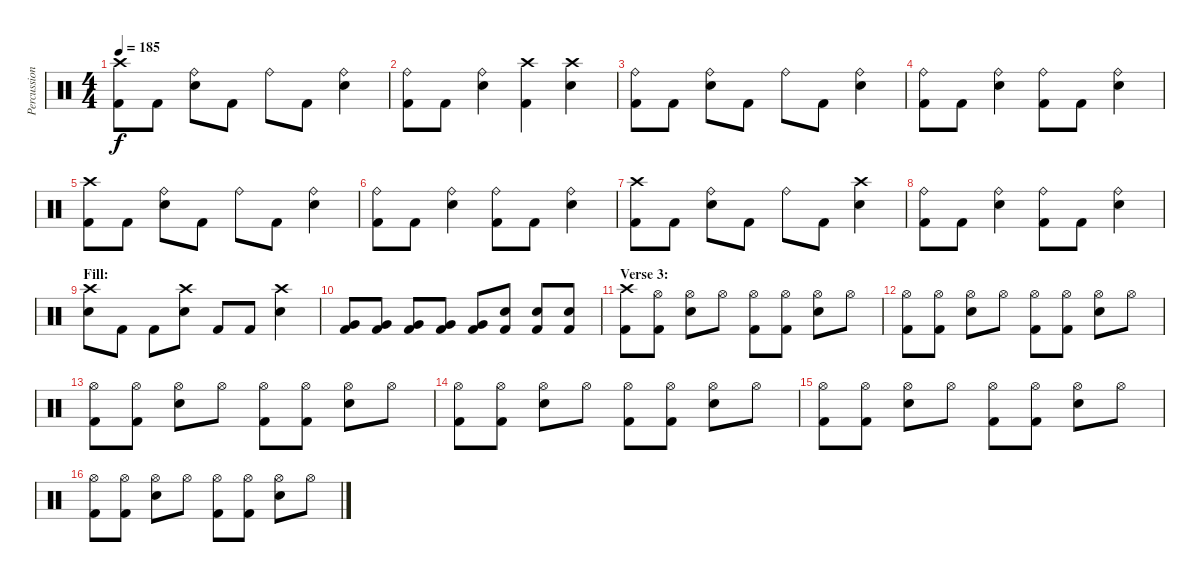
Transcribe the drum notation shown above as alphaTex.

\track ("Percussion" "Percussion") {instrument percussion}
\staff {score}
\articulation defaults
\ts (4 4)
\tempo 185
\clef neutral
\ks c
("Crash high (hit)" "Kick (hit) 2").8{dy f} "Kick (hit) 2".8 ("Ride (bell)" "Snare (hit) 2").8 "Kick (hit) 2".8 "Ride (bell)".8 "Kick (hit) 2".8 ("Ride (bell)" "Snare (hit) 2").4 |
("Ride (bell)" "Kick (hit) 2").8 "Kick (hit) 2".8 ("Ride (bell)" "Snare (hit) 2").4 ("Crash high (hit)" "Kick (hit) 2").4 ("Crash high (hit)" "Snare (hit) 2").4 |
("Ride (bell)" "Kick (hit) 2").8 "Kick (hit) 2".8 ("Ride (bell)" "Snare (hit) 2").8 "Kick (hit) 2".8 "Ride (bell)".8 "Kick (hit) 2".8 ("Ride (bell)" "Snare (hit) 2").4 |
("Ride (bell)" "Kick (hit) 2").8 "Kick (hit) 2".8 ("Ride (bell)" "Snare (hit) 2").4 ("Ride (bell)" "Kick (hit) 2").8 "Kick (hit) 2".8 ("Ride (bell)" "Snare (hit) 2").4 |
("Crash high (hit)" "Kick (hit) 2").8 "Kick (hit) 2".8 ("Ride (bell)" "Snare (hit) 2").8 "Kick (hit) 2".8 "Ride (bell)".8 "Kick (hit) 2".8 ("Ride (bell)" "Snare (hit) 2").4 |
("Ride (bell)" "Kick (hit) 2").8 "Kick (hit) 2".8 ("Ride (bell)" "Snare (hit) 2").4 ("Ride (bell)" "Kick (hit) 2").8 "Kick (hit) 2".8 ("Ride (bell)" "Snare (hit) 2").4 |
("Crash high (hit)" "Kick (hit) 2").8 "Kick (hit) 2".8 ("Ride (bell)" "Snare (hit) 2").8 "Kick (hit) 2".8 "Ride (bell)".8 "Kick (hit) 2".8 ("Crash high (hit)" "Snare (hit) 2").4 |
("Ride (bell)" "Kick (hit) 2").8 "Kick (hit) 2".8 ("Ride (bell)" "Snare (hit) 2").4 ("Ride (bell)" "Kick (hit) 2").8 "Kick (hit) 2".8 ("Ride (bell)" "Snare (hit) 2").4 |
\section ("" "Fill:")
("Crash high (hit)" "Snare (hit) 2").8 "Kick (hit) 2".8 "Kick (hit) 2".8 ("Crash high (hit)" "Snare (hit) 2").8 "Kick (hit) 2".8 "Kick (hit) 2".8 ("Crash high (hit)" "Snare (hit) 2").4 |
("Very Low Tom (hit)" "Kick (hit) 2").8 ("Very Low Tom (hit)" "Kick (hit) 2").8 ("Very Low Tom (hit)" "Kick (hit) 2").8 ("Very Low Tom (hit)" "Kick (hit) 2").8 ("Very Low Tom (hit)" "Kick (hit) 2").8 ("Snare (hit) 2" "Kick (hit) 2").8 ("Snare (hit) 2" "Kick (hit) 2").8 ("Snare (hit) 2" "Kick (hit) 2").8 |
\section ("" "Verse 3:")
("Crash high (hit)" "Kick (hit) 2").8 ("Hi-Hat (open)" "Kick (hit) 2").8 ("Hi-Hat (open)" "Snare (hit) 2").8 "Hi-Hat (open)".8 ("Hi-Hat (open)" "Kick (hit) 2").8 ("Hi-Hat (open)" "Kick (hit) 2").8 ("Hi-Hat (open)" "Snare (hit) 2").8 "Hi-Hat (open)".8 |
("Hi-Hat (open)" "Kick (hit) 2").8 ("Hi-Hat (open)" "Kick (hit) 2").8 ("Hi-Hat (open)" "Snare (hit) 2").8 "Hi-Hat (open)".8 ("Hi-Hat (open)" "Kick (hit) 2").8 ("Hi-Hat (open)" "Kick (hit) 2").8 ("Hi-Hat (open)" "Snare (hit) 2").8 "Hi-Hat (open)".8 |
("Hi-Hat (open)" "Kick (hit) 2").8 ("Hi-Hat (open)" "Kick (hit) 2").8 ("Hi-Hat (open)" "Snare (hit) 2").8 "Hi-Hat (open)".8 ("Hi-Hat (open)" "Kick (hit) 2").8 ("Hi-Hat (open)" "Kick (hit) 2").8 ("Hi-Hat (open)" "Snare (hit) 2").8 "Hi-Hat (open)".8 |
("Hi-Hat (open)" "Kick (hit) 2").8 ("Hi-Hat (open)" "Kick (hit) 2").8 ("Hi-Hat (open)" "Snare (hit) 2").8 "Hi-Hat (open)".8 ("Hi-Hat (open)" "Kick (hit) 2").8 ("Hi-Hat (open)" "Kick (hit) 2").8 ("Hi-Hat (open)" "Snare (hit) 2").8 "Hi-Hat (open)".8 |
("Hi-Hat (open)" "Kick (hit) 2").8 ("Hi-Hat (open)" "Kick (hit) 2").8 ("Hi-Hat (open)" "Snare (hit) 2").8 "Hi-Hat (open)".8 ("Hi-Hat (open)" "Kick (hit) 2").8 ("Hi-Hat (open)" "Kick (hit) 2").8 ("Hi-Hat (open)" "Snare (hit) 2").8 "Hi-Hat (open)".8 |
("Hi-Hat (open)" "Kick (hit) 2").8 ("Hi-Hat (open)" "Kick (hit) 2").8 ("Hi-Hat (open)" "Snare (hit) 2").8 "Hi-Hat (open)".8 ("Hi-Hat (open)" "Kick (hit) 2").8 ("Hi-Hat (open)" "Kick (hit) 2").8 ("Hi-Hat (open)" "Snare (hit) 2").8 "Hi-Hat (open)".8
